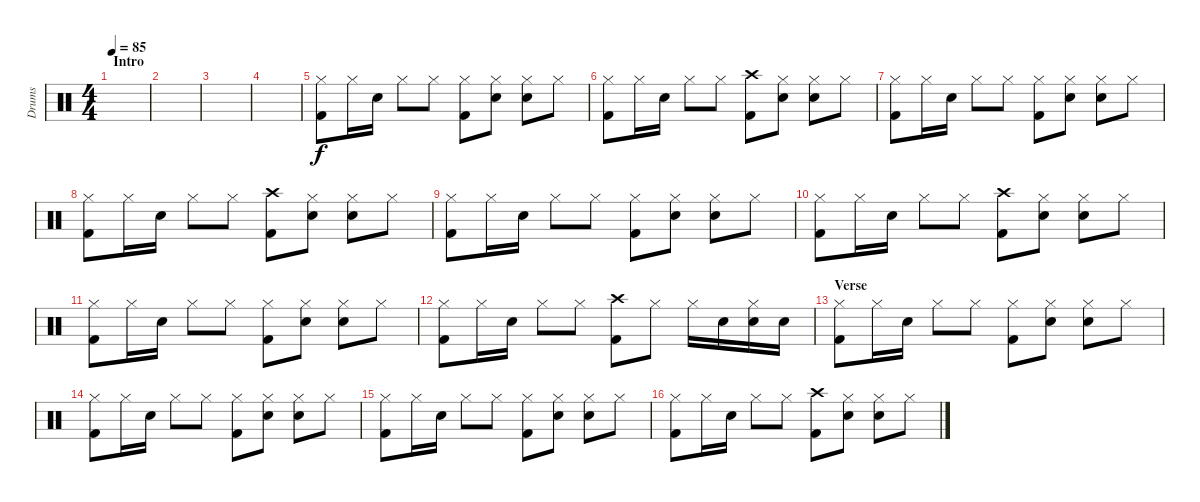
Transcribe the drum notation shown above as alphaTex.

\track ("Drums" "Drums") {instrument percussion}
\staff {score}
\articulation defaults
\ts (4 4)
\section ("" "Intro")
\tempo 85
\clef neutral
\ks c
|
|
|
|
("Hi-Hat (closed)" "Kick (hit) 2").8 "Hi-Hat (closed)".16 "Snare (hit) 2".16 "Hi-Hat (closed)".8 "Hi-Hat (closed)".8 ("Hi-Hat (closed)" "Kick (hit) 2").8 ("Hi-Hat (closed)" "Snare (hit) 2").8 ("Hi-Hat (closed)" "Snare (hit) 2").8 "Hi-Hat (closed)".8 |
("Hi-Hat (closed)" "Kick (hit) 2").8 "Hi-Hat (closed)".16 "Snare (hit) 2".16 "Hi-Hat (closed)".8 "Hi-Hat (closed)".8 ("Crash high (hit)" "Kick (hit) 2").8 ("Hi-Hat (closed)" "Snare (hit) 2").8 ("Hi-Hat (closed)" "Snare (hit) 2").8 "Hi-Hat (closed)".8 |
("Hi-Hat (closed)" "Kick (hit) 2").8 "Hi-Hat (closed)".16 "Snare (hit) 2".16 "Hi-Hat (closed)".8 "Hi-Hat (closed)".8 ("Hi-Hat (closed)" "Kick (hit) 2").8 ("Hi-Hat (closed)" "Snare (hit) 2").8 ("Hi-Hat (closed)" "Snare (hit) 2").8 "Hi-Hat (closed)".8 |
("Hi-Hat (closed)" "Kick (hit) 2").8 "Hi-Hat (closed)".16 "Snare (hit) 2".16 "Hi-Hat (closed)".8 "Hi-Hat (closed)".8 ("Crash high (hit)" "Kick (hit) 2").8 ("Hi-Hat (closed)" "Snare (hit) 2").8 ("Hi-Hat (closed)" "Snare (hit) 2").8 "Hi-Hat (closed)".8 |
("Hi-Hat (closed)" "Kick (hit) 2").8 "Hi-Hat (closed)".16 "Snare (hit) 2".16 "Hi-Hat (closed)".8 "Hi-Hat (closed)".8 ("Hi-Hat (closed)" "Kick (hit) 2").8 ("Hi-Hat (closed)" "Snare (hit) 2").8 ("Hi-Hat (closed)" "Snare (hit) 2").8 "Hi-Hat (closed)".8 |
("Hi-Hat (closed)" "Kick (hit) 2").8 "Hi-Hat (closed)".16 "Snare (hit) 2".16 "Hi-Hat (closed)".8 "Hi-Hat (closed)".8 ("Crash high (hit)" "Kick (hit) 2").8 ("Hi-Hat (closed)" "Snare (hit) 2").8 ("Hi-Hat (closed)" "Snare (hit) 2").8 "Hi-Hat (closed)".8 |
("Hi-Hat (closed)" "Kick (hit) 2").8 "Hi-Hat (closed)".16 "Snare (hit) 2".16 "Hi-Hat (closed)".8 "Hi-Hat (closed)".8 ("Hi-Hat (closed)" "Kick (hit) 2").8 ("Hi-Hat (closed)" "Snare (hit) 2").8 ("Hi-Hat (closed)" "Snare (hit) 2").8 "Hi-Hat (closed)".8 |
("Hi-Hat (closed)" "Kick (hit) 2").8 "Hi-Hat (closed)".16 "Snare (hit) 2".16 "Hi-Hat (closed)".8 "Hi-Hat (closed)".8 ("Crash high (hit)" "Kick (hit) 2").8 "Hi-Hat (closed)".8 "Hi-Hat (closed)".16 "Snare (hit) 2".16 ("Hi-Hat (closed)" "Snare (hit) 2").16 "Snare (hit) 2".16 |
\section ("" "Verse")
("Hi-Hat (closed)" "Kick (hit) 2").8 "Hi-Hat (closed)".16 "Snare (hit) 2".16 "Hi-Hat (closed)".8 "Hi-Hat (closed)".8 ("Hi-Hat (closed)" "Kick (hit) 2").8 ("Hi-Hat (closed)" "Snare (hit) 2").8 ("Hi-Hat (closed)" "Snare (hit) 2").8 "Hi-Hat (closed)".8 |
("Hi-Hat (closed)" "Kick (hit) 2").8 "Hi-Hat (closed)".16 "Snare (hit) 2".16 "Hi-Hat (closed)".8 "Hi-Hat (closed)".8 ("Hi-Hat (closed)" "Kick (hit) 2").8 ("Hi-Hat (closed)" "Snare (hit) 2").8 ("Hi-Hat (closed)" "Snare (hit) 2").8 "Hi-Hat (closed)".8 |
("Hi-Hat (closed)" "Kick (hit) 2").8 "Hi-Hat (closed)".16 "Snare (hit) 2".16 "Hi-Hat (closed)".8 "Hi-Hat (closed)".8 ("Hi-Hat (closed)" "Kick (hit) 2").8 ("Hi-Hat (closed)" "Snare (hit) 2").8 ("Hi-Hat (closed)" "Snare (hit) 2").8 "Hi-Hat (closed)".8 |
("Hi-Hat (closed)" "Kick (hit) 2").8 "Hi-Hat (closed)".16 "Snare (hit) 2".16 "Hi-Hat (closed)".8 "Hi-Hat (closed)".8 ("Crash high (hit)" "Kick (hit) 2").8 ("Hi-Hat (closed)" "Snare (hit) 2").8 ("Hi-Hat (closed)" "Snare (hit) 2").8 "Hi-Hat (closed)".8
